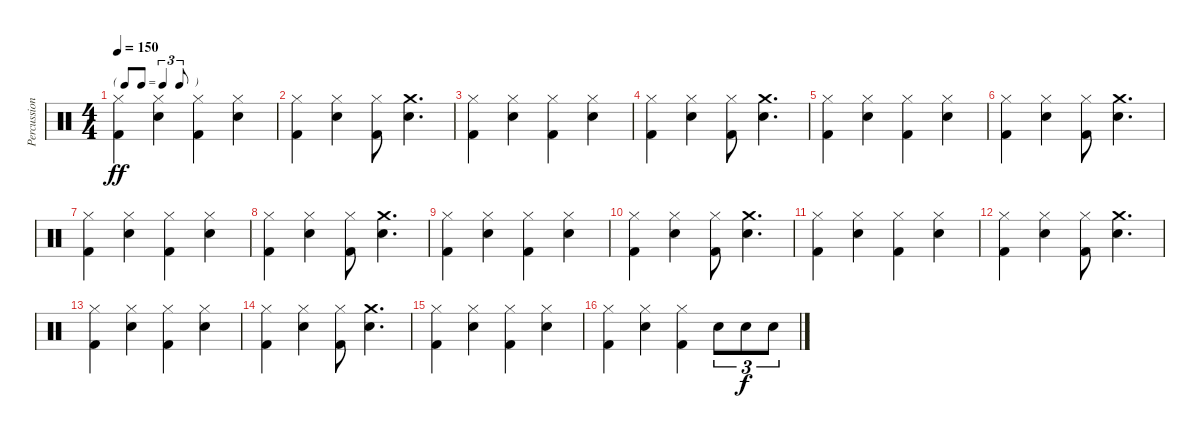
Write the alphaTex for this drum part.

\track ("Percussion" "Percussion") {instrument percussion}
\staff {score}
\articulation defaults
\ts (4 4)
\tf triplet8th
\tempo 150
\clef neutral
\ks c
("Hi-Hat (closed)" "Kick (hit) 2").4{dy ff} ("Hi-Hat (closed)" "Electric Snare (hit)").4 ("Hi-Hat (closed)" "Kick (hit) 2").4 ("Hi-Hat (closed)" "Electric Snare (hit)").4 |
("Hi-Hat (closed)" "Kick (hit) 2").4 ("Hi-Hat (closed)" "Electric Snare (hit)").4 ("Hi-Hat (closed)" "Kick (hit) 2").8 ("Crash medium (hit)" "Electric Snare (hit)").4{d} |
("Hi-Hat (closed)" "Kick (hit) 2").4 ("Hi-Hat (closed)" "Electric Snare (hit)").4 ("Hi-Hat (closed)" "Kick (hit) 2").4 ("Hi-Hat (closed)" "Electric Snare (hit)").4 |
("Hi-Hat (closed)" "Kick (hit) 2").4 ("Hi-Hat (closed)" "Electric Snare (hit)").4 ("Hi-Hat (closed)" "Kick (hit) 2").8 ("Crash medium (hit)" "Electric Snare (hit)").4{d} |
("Hi-Hat (closed)" "Kick (hit) 2").4 ("Hi-Hat (closed)" "Electric Snare (hit)").4 ("Hi-Hat (closed)" "Kick (hit) 2").4 ("Hi-Hat (closed)" "Electric Snare (hit)").4 |
("Hi-Hat (closed)" "Kick (hit) 2").4 ("Hi-Hat (closed)" "Electric Snare (hit)").4 ("Hi-Hat (closed)" "Kick (hit) 2").8 ("Crash medium (hit)" "Electric Snare (hit)").4{d} |
("Hi-Hat (closed)" "Kick (hit) 2").4 ("Hi-Hat (closed)" "Electric Snare (hit)").4 ("Hi-Hat (closed)" "Kick (hit) 2").4 ("Hi-Hat (closed)" "Electric Snare (hit)").4 |
("Hi-Hat (closed)" "Kick (hit) 2").4 ("Hi-Hat (closed)" "Electric Snare (hit)").4 ("Hi-Hat (closed)" "Kick (hit) 2").8 ("Crash medium (hit)" "Electric Snare (hit)").4{d} |
("Hi-Hat (closed)" "Kick (hit) 2").4 ("Hi-Hat (closed)" "Electric Snare (hit)").4 ("Hi-Hat (closed)" "Kick (hit) 2").4 ("Hi-Hat (closed)" "Electric Snare (hit)").4 |
("Hi-Hat (closed)" "Kick (hit) 2").4 ("Hi-Hat (closed)" "Electric Snare (hit)").4 ("Hi-Hat (closed)" "Kick (hit) 2").8 ("Crash medium (hit)" "Electric Snare (hit)").4{d} |
("Hi-Hat (closed)" "Kick (hit) 2").4 ("Hi-Hat (closed)" "Electric Snare (hit)").4 ("Hi-Hat (closed)" "Kick (hit) 2").4 ("Hi-Hat (closed)" "Electric Snare (hit)").4 |
("Hi-Hat (closed)" "Kick (hit) 2").4 ("Hi-Hat (closed)" "Electric Snare (hit)").4 ("Hi-Hat (closed)" "Kick (hit) 2").8 ("Crash medium (hit)" "Electric Snare (hit)").4{d} |
("Hi-Hat (closed)" "Kick (hit) 2").4 ("Hi-Hat (closed)" "Electric Snare (hit)").4 ("Hi-Hat (closed)" "Kick (hit) 2").4 ("Hi-Hat (closed)" "Electric Snare (hit)").4 |
("Hi-Hat (closed)" "Kick (hit) 2").4 ("Hi-Hat (closed)" "Electric Snare (hit)").4 ("Hi-Hat (closed)" "Kick (hit) 2").8 ("Crash medium (hit)" "Electric Snare (hit)").4{d} |
("Hi-Hat (closed)" "Kick (hit) 2").4 ("Hi-Hat (closed)" "Electric Snare (hit)").4 ("Hi-Hat (closed)" "Kick (hit) 2").4 ("Hi-Hat (closed)" "Electric Snare (hit)").4 |
("Hi-Hat (closed)" "Kick (hit) 2").4 ("Hi-Hat (closed)" "Electric Snare (hit)").4 ("Hi-Hat (closed)" "Kick (hit) 2").4 "Electric Snare (hit)".8{tu (3 2)} "Electric Snare (hit)".8{tu (3 2) dy f} "Electric Snare (hit)".8{tu (3 2)}
